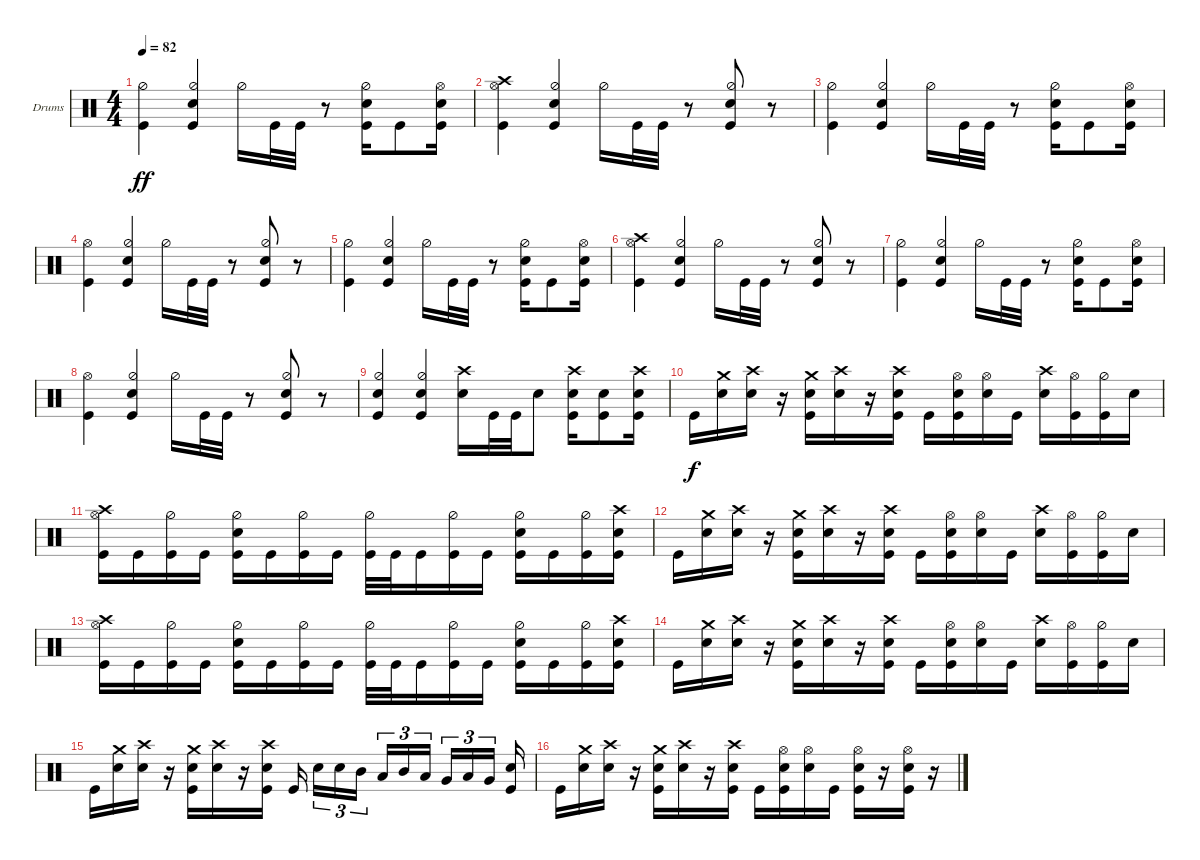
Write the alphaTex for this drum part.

\bracketExtendMode groupsimilarinstruments
\firstSystemTrackNameOrientation horizontal
\otherSystemsTrackNameOrientation horizontal
\track ("Drumkit" "Drums") {instrument percussion}
\staff {score}
\articulation defaults
\ts (4 4)
\tempo 82
\clef neutral
\ks c
("Kick (hit)" "Hi-Hat (half)").4{dy ff} ("Kick (hit)" "Snare (hit) 2" "Hi-Hat (half)").4 "Hi-Hat (half)".16 "Kick (hit)".32 "Kick (hit)".32 r.8 ("Kick (hit)" "Snare (hit) 2" "Hi-Hat (half)").16 "Kick (hit)".8 ("Kick (hit)" "Snare (hit) 2" "Hi-Hat (open)").16 |
("Kick (hit)" "Hi-Hat (open)" "Crash high (hit)").4 ("Kick (hit)" "Snare (hit) 2" "Hi-Hat (half)").4 "Hi-Hat (half)".16 "Kick (hit)".32 "Kick (hit)".32 r.8 ("Kick (hit)" "Snare (hit) 2" "Hi-Hat (half)").8 r.8 |
("Kick (hit)" "Hi-Hat (half)").4 ("Kick (hit)" "Snare (hit) 2" "Hi-Hat (half)").4 "Hi-Hat (half)".16 "Kick (hit)".32 "Kick (hit)".32 r.8 ("Kick (hit)" "Snare (hit) 2" "Hi-Hat (half)").16 "Kick (hit)".8 ("Kick (hit)" "Snare (hit) 2" "Hi-Hat (open)").16 |
("Kick (hit)" "Hi-Hat (open)").4 ("Kick (hit)" "Snare (hit) 2" "Hi-Hat (half)").4 "Hi-Hat (half)".16 "Kick (hit)".32 "Kick (hit)".32 r.8 ("Kick (hit)" "Snare (hit) 2" "Hi-Hat (half)").8 r.8 |
("Kick (hit)" "Hi-Hat (half)").4 ("Kick (hit)" "Snare (hit) 2" "Hi-Hat (half)").4 "Hi-Hat (half)".16 "Kick (hit)".32 "Kick (hit)".32 r.8 ("Kick (hit)" "Snare (hit) 2" "Hi-Hat (half)").16 "Kick (hit)".8 ("Kick (hit)" "Snare (hit) 2" "Hi-Hat (open)").16 |
("Kick (hit)" "Hi-Hat (open)" "Crash high (hit)").4 ("Kick (hit)" "Snare (hit) 2" "Hi-Hat (half)").4 "Hi-Hat (half)".16 "Kick (hit)".32 "Kick (hit)".32 r.8 ("Kick (hit)" "Snare (hit) 2" "Hi-Hat (half)").8 r.8 |
("Kick (hit)" "Hi-Hat (half)").4 ("Kick (hit)" "Snare (hit) 2" "Hi-Hat (half)").4 "Hi-Hat (half)".16 "Kick (hit)".32 "Kick (hit)".32 r.8 ("Kick (hit)" "Snare (hit) 2" "Hi-Hat (half)").16 "Kick (hit)".8 ("Kick (hit)" "Snare (hit) 2" "Hi-Hat (open)").16 |
("Kick (hit)" "Hi-Hat (open)").4 ("Kick (hit)" "Snare (hit) 2" "Hi-Hat (half)").4 "Hi-Hat (half)".16 "Kick (hit)".32 "Kick (hit)".32 r.8 ("Kick (hit)" "Snare (hit) 2" "Hi-Hat (half)").8 r.8 |
("Kick (hit)" "Hi-Hat (half)" "Snare (hit) 2").4 ("Kick (hit)" "Snare (hit) 2" "Hi-Hat (half)").4 ("Snare (hit) 2" "Crash high (hit)").16 "Kick (hit)".32 "Kick (hit)".32 "Snare (hit) 2".8 ("Kick (hit)" "Snare (hit) 2" "Crash high (hit)").16 ("Kick (hit)" "Snare (hit) 2").8 ("Kick (hit)" "Snare (hit) 2" "Crash high (hit)").16 |
"Kick (hit)".16{dy f} ("Snare (hit) 2" "Crash medium (hit)").16 ("Snare (hit) 2" "Crash high (hit)").16 r.16 ("Snare (hit) 2" "Crash medium (hit)" "Kick (hit)").16 ("Snare (hit) 2" "Crash high (hit)").16 r.16 ("Snare (hit) 2" "Crash high (hit)" "Kick (hit)").16 "Kick (hit)".16 ("Snare (hit) 2" "Hi-Hat (open)" "Kick (hit)").16 ("Snare (hit) 2" "Hi-Hat (open)").16 "Kick (hit)".16 ("Snare (hit) 2" "Crash high (hit)").16 ("Kick (hit)" "Hi-Hat (open)").16 ("Kick (hit)" "Hi-Hat (half)").16 "Snare (hit) 2".16 |
("Kick (hit)" "Hi-Hat (open)" "Crash high (hit)").16 "Kick (hit)".16 ("Kick (hit)" "Hi-Hat (half)").16 "Kick (hit)".16 ("Kick (hit)" "Snare (hit) 2" "Hi-Hat (half)").16 "Kick (hit)".16 ("Kick (hit)" "Hi-Hat (half)").16 "Kick (hit)".16 ("Kick (hit)" "Hi-Hat (half)").32 "Kick (hit)".32 "Kick (hit)".16 ("Kick (hit)" "Hi-Hat (half)").16 "Kick (hit)".16 ("Kick (hit)" "Snare (hit) 2" "Hi-Hat (half)").16 "Kick (hit)".16 ("Kick (hit)" "Hi-Hat (half)").16 ("Kick (hit)" "Snare (hit) 2" "Crash high (hit)").16 |
"Kick (hit)".16 ("Snare (hit) 2" "Crash medium (hit)").16 ("Snare (hit) 2" "Crash high (hit)").16 r.16 ("Snare (hit) 2" "Crash medium (hit)" "Kick (hit)").16 ("Snare (hit) 2" "Crash high (hit)").16 r.16 ("Snare (hit) 2" "Crash high (hit)" "Kick (hit)").16 "Kick (hit)".16 ("Snare (hit) 2" "Hi-Hat (open)" "Kick (hit)").16 ("Snare (hit) 2" "Hi-Hat (open)").16 "Kick (hit)".16 ("Snare (hit) 2" "Crash high (hit)").16 ("Kick (hit)" "Hi-Hat (open)").16 ("Kick (hit)" "Hi-Hat (half)").16 "Snare (hit) 2".16 |
("Kick (hit)" "Hi-Hat (open)" "Crash high (hit)").16 "Kick (hit)".16 ("Kick (hit)" "Hi-Hat (half)").16 "Kick (hit)".16 ("Kick (hit)" "Snare (hit) 2" "Hi-Hat (half)").16 "Kick (hit)".16 ("Kick (hit)" "Hi-Hat (half)").16 "Kick (hit)".16 ("Kick (hit)" "Hi-Hat (half)").32 "Kick (hit)".32 "Kick (hit)".16 ("Kick (hit)" "Hi-Hat (half)").16 "Kick (hit)".16 ("Kick (hit)" "Snare (hit) 2" "Hi-Hat (half)").16 "Kick (hit)".16 ("Kick (hit)" "Hi-Hat (half)").16 ("Kick (hit)" "Snare (hit) 2" "Crash high (hit)").16 |
"Kick (hit)".16 ("Snare (hit) 2" "Crash medium (hit)").16 ("Snare (hit) 2" "Crash high (hit)").16 r.16 ("Snare (hit) 2" "Crash medium (hit)" "Kick (hit)").16 ("Snare (hit) 2" "Crash high (hit)").16 r.16 ("Snare (hit) 2" "Crash high (hit)" "Kick (hit)").16 "Kick (hit)".16 ("Snare (hit) 2" "Hi-Hat (open)" "Kick (hit)").16 ("Snare (hit) 2" "Hi-Hat (open)").16 "Kick (hit)".16 ("Snare (hit) 2" "Crash high (hit)").16 ("Kick (hit)" "Hi-Hat (open)").16 ("Kick (hit)" "Hi-Hat (half)").16 "Snare (hit) 2".16 |
"Kick (hit)".16 ("Snare (hit) 2" "Crash medium (hit)").16 ("Snare (hit) 2" "Crash high (hit)").16 r.16 ("Snare (hit) 2" "Crash medium (hit)" "Kick (hit)").16 ("Snare (hit) 2" "Crash high (hit)").16 r.16 ("Snare (hit) 2" "Crash high (hit)" "Kick (hit)").16 "Kick (hit)".16 "Snare (hit) 2".16{tu (3 2)} "Snare (hit) 2".16{tu (3 2)} "Mid Tom (hit)".16{tu (3 2)} "Low Tom (hit)".16{tu (3 2)} "Mid Tom (hit)".16{tu (3 2)} "Low Tom (hit)".16{tu (3 2)} "Very Low Tom (hit)".16{tu (3 2)} "Low Tom (hit)".16{tu (3 2)} "Very Low Tom (hit)".16{tu (3 2)} ("Kick (hit)" "Snare (hit) 2").16 |
"Kick (hit)".16 ("Snare (hit) 2" "Crash medium (hit)").16 ("Snare (hit) 2" "Crash high (hit)").16 r.16 ("Snare (hit) 2" "Crash medium (hit)" "Kick (hit)").16 ("Snare (hit) 2" "Crash high (hit)").16 r.16 ("Snare (hit) 2" "Crash high (hit)" "Kick (hit)").16 "Kick (hit)".16 ("Snare (hit) 2" "Hi-Hat (open)" "Kick (hit)").16 ("Snare (hit) 2" "Hi-Hat (open)").16 "Kick (hit)".16 ("Hi-Hat (open)" "Snare (hit) 2" "Kick (hit)").16 r.16 ("Hi-Hat (open)" "Snare (hit) 2" "Kick (hit)").16 r.16
